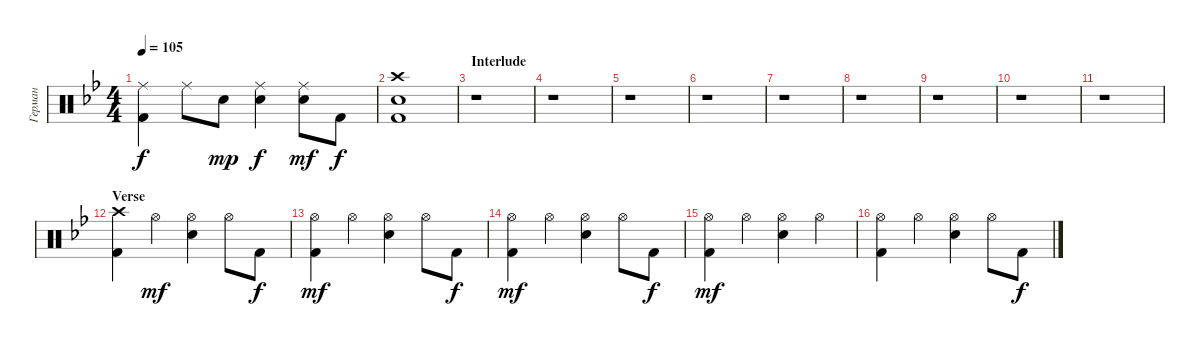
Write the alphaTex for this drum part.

\track ("Герман" "Герман") {instrument percussion}
\staff {score}
\articulation defaults
\ts (4 4)
\tempo 105
\clef neutral
\ks gminor
("Ride (middle)" "Kick (hit) 2").4{dy f} "Ride (middle)".8 "Electric Snare (hit)".8{dy mp} ("Ride (middle)" "Electric Snare (hit)").4{dy f} ("Ride (middle)" "Electric Snare (hit)").8{dy mf} "Kick (hit) 2".8{dy f} |
("Crash high (hit)" "Electric Snare (hit)" "Kick (hit) 2").1 |
\section ("" "Interlude")
r.1 |
r.1 |
r.1 |
r.1 |
r.1 |
r.1 |
r.1 |
r.1 |
r.1 |
\section ("" "Verse")
("Crash high (hit)" "Kick (hit) 2").4 "Hi-Hat (open)".4{dy mf} ("Hi-Hat (open)" "Electric Snare (hit)").4 "Hi-Hat (open)".8 "Kick (hit) 2".8{dy f} |
("Hi-Hat (open)" "Kick (hit) 2").4{dy mf} "Hi-Hat (open)".4 ("Hi-Hat (open)" "Electric Snare (hit)").4 "Hi-Hat (open)".8 "Kick (hit) 2".8{dy f} |
("Hi-Hat (open)" "Kick (hit) 2").4{dy mf} "Hi-Hat (open)".4 ("Hi-Hat (open)" "Electric Snare (hit)").4 "Hi-Hat (open)".8 "Kick (hit) 2".8{dy f} |
("Hi-Hat (open)" "Kick (hit) 2").4{dy mf} "Hi-Hat (open)".4 ("Hi-Hat (open)" "Electric Snare (hit)").4 "Hi-Hat (open)".4 |
("Hi-Hat (open)" "Kick (hit) 2").4 "Hi-Hat (open)".4 ("Hi-Hat (open)" "Electric Snare (hit)").4 "Hi-Hat (open)".8 "Kick (hit) 2".8{dy f}
